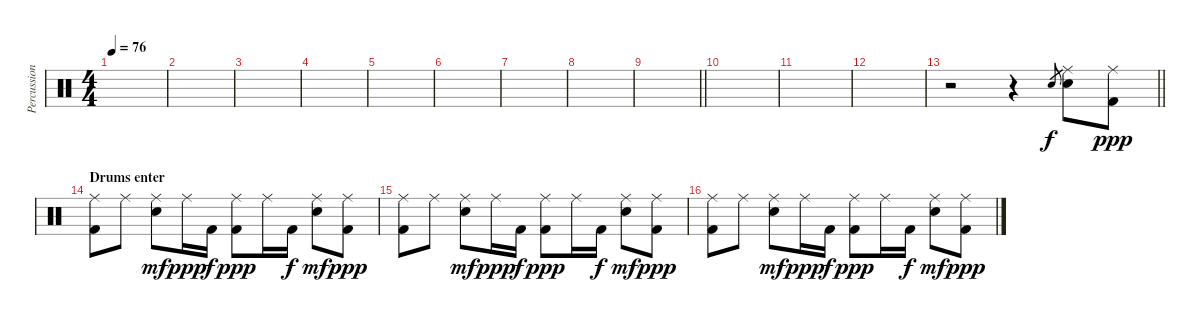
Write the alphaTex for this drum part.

\track ("Percussions" "Percussion") {instrument percussion}
\staff {score}
\articulation defaults
\ts (4 4)
\tempo 76
\clef neutral
\ks c
|
|
|
|
|
|
|
|
\barLineRight lightlight
|
|
|
|
\barLineRight lightlight
r.2 r.4 "Electric Snare (hit)".8{gr} ("Ride (middle)" "Electric Snare (hit)").8 ("Ride (middle)" "Kick (hit) 2").8{dy ppp} |
\section ("" "Drums enter")
("Ride (middle)" "Kick (hit) 2").8 "Ride (middle)".8 ("Ride (middle)" "Electric Snare (hit)").8{dy mf} "Ride (middle)".16{dy ppp} "Kick (hit) 2".16{dy f} ("Ride (middle)" "Kick (hit) 2").8{dy ppp} "Ride (middle)".16 "Kick (hit) 2".16{dy f} ("Ride (middle)" "Electric Snare (hit)").8{dy mf} ("Ride (middle)" "Kick (hit) 2").8{dy ppp} |
("Ride (middle)" "Kick (hit) 2").8 "Ride (middle)".8 ("Ride (middle)" "Electric Snare (hit)").8{dy mf} "Ride (middle)".16{dy ppp} "Kick (hit) 2".16{dy f} ("Ride (middle)" "Kick (hit) 2").8{dy ppp} "Ride (middle)".16 "Kick (hit) 2".16{dy f} ("Ride (middle)" "Electric Snare (hit)").8{dy mf} ("Ride (middle)" "Kick (hit) 2").8{dy ppp} |
("Ride (middle)" "Kick (hit) 2").8 "Ride (middle)".8 ("Ride (middle)" "Electric Snare (hit)").8{dy mf} "Ride (middle)".16{dy ppp} "Kick (hit) 2".16{dy f} ("Ride (middle)" "Kick (hit) 2").8{dy ppp} "Ride (middle)".16 "Kick (hit) 2".16{dy f} ("Ride (middle)" "Electric Snare (hit)").8{dy mf} ("Ride (middle)" "Kick (hit) 2").8{dy ppp}
